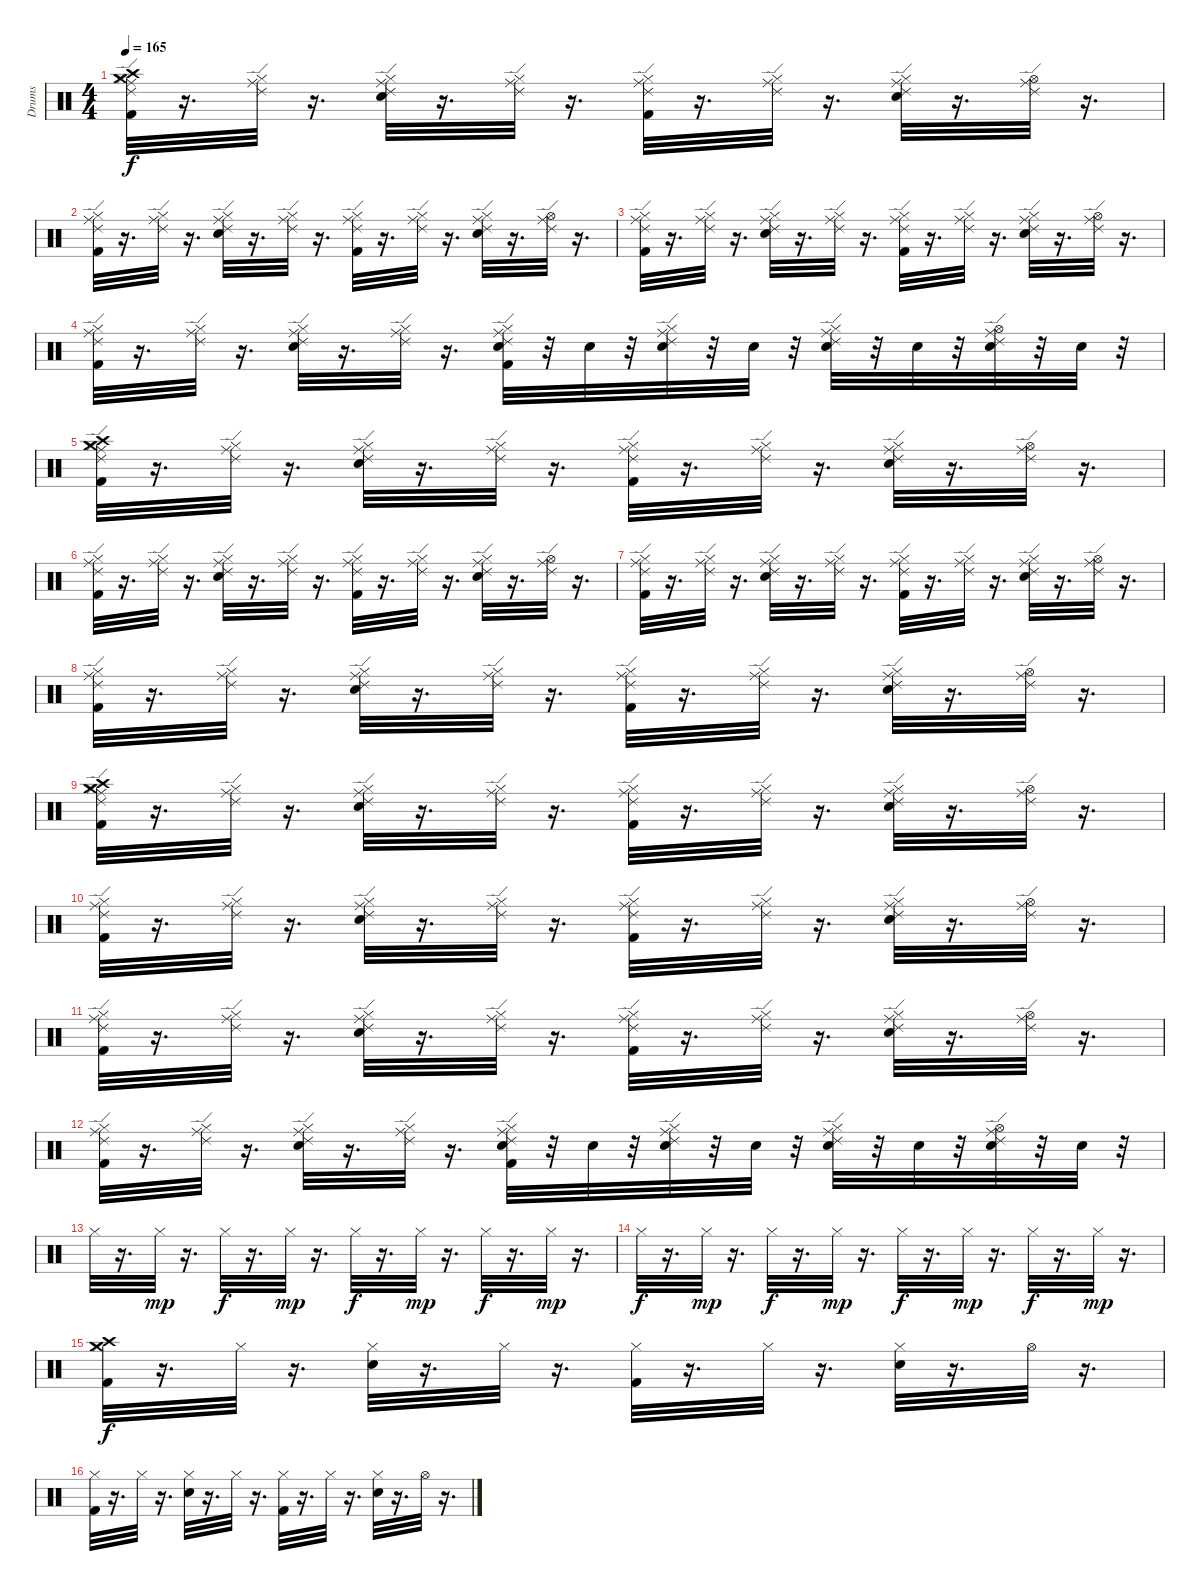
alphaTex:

\track ("Drums" "Drums") {instrument percussion}
\staff {score}
\articulation defaults
\ts (4 4)
\tempo 165
\clef neutral
\ks c
("Kick (hit) 2" "Hi-Hat (closed)" "Crash high (hit)" "Crash medium (hit)" "Ride (middle)" "Ride (edge) 2").32{dy f} r.16{d} ("Ride (middle)" "Hi-Hat (closed)" "Ride (edge) 2").32 r.16{d} ("Ride (middle)" "Electric Snare (hit)" "Hi-Hat (closed)" "Ride (edge) 2").32 r.16{d} ("Ride (edge) 2" "Ride (middle)" "Hi-Hat (closed)").32 r.16{d} ("Ride (edge) 2" "Kick (hit) 2" "Ride (middle)" "Hi-Hat (closed)").32 r.16{d} ("Ride (edge) 2" "Hi-Hat (closed)" "Ride (middle)").32 r.16{d} ("Hi-Hat (closed)" "Electric Snare (hit)" "Ride (edge) 2" "Ride (middle)").32 r.16{d} ("Ride (edge) 2" "Ride (middle)" "Hi-Hat (open)").32 r.16{d} |
("Ride (edge) 2" "Kick (hit) 2" "Hi-Hat (closed)" "Ride (middle)").32 r.16{d} ("Ride (edge) 2" "Hi-Hat (closed)" "Ride (middle)").32 r.16{d} ("Ride (middle)" "Ride (edge) 2" "Hi-Hat (closed)" "Electric Snare (hit)").32 r.16{d} ("Hi-Hat (closed)" "Ride (middle)" "Ride (edge) 2").32 r.16{d} ("Hi-Hat (closed)" "Kick (hit) 2" "Ride (edge) 2" "Ride (middle)").32 r.16{d} ("Ride (middle)" "Hi-Hat (closed)" "Ride (edge) 2").32 r.16{d} ("Electric Snare (hit)" "Ride (middle)" "Ride (edge) 2" "Hi-Hat (closed)").32 r.16{d} ("Ride (middle)" "Hi-Hat (open)" "Ride (edge) 2").32 r.16{d} |
("Hi-Hat (closed)" "Kick (hit) 2" "Ride (middle)" "Ride (edge) 2").32 r.16{d} ("Ride (middle)" "Ride (edge) 2" "Hi-Hat (closed)").32 r.16{d} ("Ride (edge) 2" "Electric Snare (hit)" "Ride (middle)" "Hi-Hat (closed)").32 r.16{d} ("Ride (edge) 2" "Ride (middle)" "Hi-Hat (closed)").32 r.16{d} ("Hi-Hat (closed)" "Kick (hit) 2" "Ride (edge) 2" "Ride (middle)").32 r.16{d} ("Ride (edge) 2" "Ride (middle)" "Hi-Hat (closed)").32 r.16{d} ("Ride (middle)" "Electric Snare (hit)" "Ride (edge) 2" "Hi-Hat (closed)").32 r.16{d} ("Ride (edge) 2" "Hi-Hat (open)" "Ride (middle)").32 r.16{d} |
("Hi-Hat (closed)" "Ride (edge) 2" "Ride (middle)" "Kick (hit) 2").32 r.16{d} ("Hi-Hat (closed)" "Ride (edge) 2" "Ride (middle)").32 r.16{d} ("Hi-Hat (closed)" "Ride (edge) 2" "Ride (middle)" "Electric Snare (hit)").32 r.16{d} ("Ride (edge) 2" "Hi-Hat (closed)" "Ride (middle)").32 r.16{d} ("Ride (edge) 2" "Kick (hit) 2" "Ride (middle)" "Hi-Hat (closed)" "Electric Snare (hit)").32 r.32 "Electric Snare (hit)".32 r.32 ("Hi-Hat (closed)" "Ride (middle)" "Ride (edge) 2" "Electric Snare (hit)").32 r.32 "Electric Snare (hit)".32 r.32 ("Ride (edge) 2" "Ride (middle)" "Hi-Hat (closed)" "Electric Snare (hit)").32 r.32 "Electric Snare (hit)".32 r.32 ("Hi-Hat (open)" "Electric Snare (hit)" "Ride (middle)" "Ride (edge) 2").32 r.32 "Electric Snare (hit)".32 r.32 |
("Ride (edge) 2" "Ride (middle)" "Kick (hit) 2" "Hi-Hat (closed)" "Crash high (hit)" "Crash medium (hit)").32 r.16{d} ("Ride (edge) 2" "Ride (middle)" "Hi-Hat (closed)").32 r.16{d} ("Ride (edge) 2" "Ride (middle)" "Hi-Hat (closed)" "Electric Snare (hit)").32 r.16{d} ("Ride (edge) 2" "Ride (middle)" "Hi-Hat (closed)").32 r.16{d} ("Ride (edge) 2" "Ride (middle)" "Kick (hit) 2" "Hi-Hat (closed)").32 r.16{d} ("Ride (edge) 2" "Ride (middle)" "Hi-Hat (closed)").32 r.16{d} ("Ride (edge) 2" "Ride (middle)" "Electric Snare (hit)" "Hi-Hat (closed)").32 r.16{d} ("Ride (edge) 2" "Ride (middle)" "Hi-Hat (open)").32 r.16{d} |
("Ride (edge) 2" "Ride (middle)" "Kick (hit) 2" "Hi-Hat (closed)").32 r.16{d} ("Ride (edge) 2" "Ride (middle)" "Hi-Hat (closed)").32 r.16{d} ("Ride (edge) 2" "Ride (middle)" "Hi-Hat (closed)" "Electric Snare (hit)").32 r.16{d} ("Ride (edge) 2" "Hi-Hat (closed)" "Ride (middle)").32 r.16{d} ("Ride (middle)" "Ride (edge) 2" "Kick (hit) 2" "Hi-Hat (closed)").32 r.16{d} ("Ride (middle)" "Ride (edge) 2" "Hi-Hat (closed)").32 r.16{d} ("Ride (middle)" "Ride (edge) 2" "Electric Snare (hit)" "Hi-Hat (closed)").32 r.16{d} ("Ride (middle)" "Ride (edge) 2" "Hi-Hat (open)").32 r.16{d} |
("Kick (hit) 2" "Hi-Hat (closed)" "Ride (edge) 2" "Ride (middle)").32 r.16{d} ("Hi-Hat (closed)" "Ride (edge) 2" "Ride (middle)").32 r.16{d} ("Ride (edge) 2" "Ride (middle)" "Hi-Hat (closed)" "Electric Snare (hit)").32 r.16{d} ("Ride (edge) 2" "Hi-Hat (closed)" "Ride (middle)").32 r.16{d} ("Kick (hit) 2" "Ride (edge) 2" "Ride (middle)" "Hi-Hat (closed)").32 r.16{d} ("Hi-Hat (closed)" "Ride (edge) 2" "Ride (middle)").32 r.16{d} ("Electric Snare (hit)" "Ride (edge) 2" "Ride (middle)" "Hi-Hat (closed)").32 r.16{d} ("Hi-Hat (open)" "Ride (middle)" "Ride (edge) 2").32 r.16{d} |
("Hi-Hat (closed)" "Kick (hit) 2" "Ride (edge) 2" "Ride (middle)").32 r.16{d} ("Ride (middle)" "Hi-Hat (closed)" "Ride (edge) 2").32 r.16{d} ("Electric Snare (hit)" "Hi-Hat (closed)" "Ride (edge) 2" "Ride (middle)").32 r.16{d} ("Ride (edge) 2" "Ride (middle)" "Hi-Hat (closed)").32 r.16{d} ("Ride (middle)" "Kick (hit) 2" "Hi-Hat (closed)" "Ride (edge) 2").32 r.16{d} ("Ride (middle)" "Ride (edge) 2" "Hi-Hat (closed)").32 r.16{d} ("Electric Snare (hit)" "Hi-Hat (closed)" "Ride (middle)" "Ride (edge) 2").32 r.16{d} ("Hi-Hat (open)" "Ride (middle)" "Ride (edge) 2").32 r.16{d} |
("Kick (hit) 2" "Hi-Hat (closed)" "Crash high (hit)" "Crash medium (hit)" "Ride (middle)" "Ride (edge) 2").32 r.16{d} ("Ride (middle)" "Hi-Hat (closed)" "Ride (edge) 2").32 r.16{d} ("Ride (middle)" "Electric Snare (hit)" "Hi-Hat (closed)" "Ride (edge) 2").32 r.16{d} ("Ride (edge) 2" "Ride (middle)" "Hi-Hat (closed)").32 r.16{d} ("Ride (edge) 2" "Kick (hit) 2" "Ride (middle)" "Hi-Hat (closed)").32 r.16{d} ("Ride (edge) 2" "Hi-Hat (closed)" "Ride (middle)").32 r.16{d} ("Hi-Hat (closed)" "Electric Snare (hit)" "Ride (edge) 2" "Ride (middle)").32 r.16{d} ("Ride (edge) 2" "Ride (middle)" "Hi-Hat (open)").32 r.16{d} |
("Ride (edge) 2" "Kick (hit) 2" "Hi-Hat (closed)" "Ride (middle)").32 r.16{d} ("Ride (edge) 2" "Hi-Hat (closed)" "Ride (middle)").32 r.16{d} ("Ride (middle)" "Ride (edge) 2" "Hi-Hat (closed)" "Electric Snare (hit)").32 r.16{d} ("Hi-Hat (closed)" "Ride (middle)" "Ride (edge) 2").32 r.16{d} ("Hi-Hat (closed)" "Kick (hit) 2" "Ride (edge) 2" "Ride (middle)").32 r.16{d} ("Ride (middle)" "Hi-Hat (closed)" "Ride (edge) 2").32 r.16{d} ("Electric Snare (hit)" "Ride (middle)" "Ride (edge) 2" "Hi-Hat (closed)").32 r.16{d} ("Ride (middle)" "Hi-Hat (open)" "Ride (edge) 2").32 r.16{d} |
("Hi-Hat (closed)" "Kick (hit) 2" "Ride (middle)" "Ride (edge) 2").32 r.16{d} ("Ride (middle)" "Ride (edge) 2" "Hi-Hat (closed)").32 r.16{d} ("Ride (edge) 2" "Electric Snare (hit)" "Ride (middle)" "Hi-Hat (closed)").32 r.16{d} ("Ride (edge) 2" "Ride (middle)" "Hi-Hat (closed)").32 r.16{d} ("Hi-Hat (closed)" "Kick (hit) 2" "Ride (edge) 2" "Ride (middle)").32 r.16{d} ("Ride (edge) 2" "Ride (middle)" "Hi-Hat (closed)").32 r.16{d} ("Ride (middle)" "Electric Snare (hit)" "Ride (edge) 2" "Hi-Hat (closed)").32 r.16{d} ("Ride (edge) 2" "Hi-Hat (open)" "Ride (middle)").32 r.16{d} |
("Hi-Hat (closed)" "Ride (edge) 2" "Ride (middle)" "Kick (hit) 2").32 r.16{d} ("Hi-Hat (closed)" "Ride (edge) 2" "Ride (middle)").32 r.16{d} ("Hi-Hat (closed)" "Ride (edge) 2" "Ride (middle)" "Electric Snare (hit)").32 r.16{d} ("Ride (edge) 2" "Hi-Hat (closed)" "Ride (middle)").32 r.16{d} ("Ride (edge) 2" "Kick (hit) 2" "Ride (middle)" "Hi-Hat (closed)" "Electric Snare (hit)").32 r.32 "Electric Snare (hit)".32 r.32 ("Hi-Hat (closed)" "Ride (middle)" "Ride (edge) 2" "Electric Snare (hit)").32 r.32 "Electric Snare (hit)".32 r.32 ("Ride (edge) 2" "Ride (middle)" "Hi-Hat (closed)" "Electric Snare (hit)").32 r.32 "Electric Snare (hit)".32 r.32 ("Hi-Hat (open)" "Electric Snare (hit)" "Ride (middle)" "Ride (edge) 2").32 r.32 "Electric Snare (hit)".32 r.32 |
"Hi-Hat (closed)".32 r.16{d} "Hi-Hat (closed)".32{dy mp} r.16{d} "Hi-Hat (closed)".32{dy f} r.16{d} "Hi-Hat (closed)".32{dy mp} r.16{d} "Hi-Hat (closed)".32{dy f} r.16{d} "Hi-Hat (closed)".32{dy mp} r.16{d} "Hi-Hat (closed)".32{dy f} r.16{d} "Hi-Hat (closed)".32{dy mp} r.16{d} |
"Hi-Hat (closed)".32{dy f} r.16{d} "Hi-Hat (closed)".32{dy mp} r.16{d} "Hi-Hat (closed)".32{dy f} r.16{d} "Hi-Hat (closed)".32{dy mp} r.16{d} "Hi-Hat (closed)".32{dy f} r.16{d} "Hi-Hat (closed)".32{dy mp} r.16{d} "Hi-Hat (closed)".32{dy f} r.16{d} "Hi-Hat (closed)".32{dy mp} r.16{d} |
("Kick (hit) 2" "Hi-Hat (closed)" "Crash high (hit)" "Crash medium (hit)").32{dy f} r.16{d} "Hi-Hat (closed)".32 r.16{d} ("Hi-Hat (closed)" "Electric Snare (hit)").32 r.16{d} "Hi-Hat (closed)".32 r.16{d} ("Kick (hit) 2" "Hi-Hat (closed)").32 r.16{d} "Hi-Hat (closed)".32 r.16{d} ("Electric Snare (hit)" "Hi-Hat (closed)").32 r.16{d} "Hi-Hat (open)".32 r.16{d} |
("Kick (hit) 2" "Hi-Hat (closed)").32 r.16{d} "Hi-Hat (closed)".32 r.16{d} ("Hi-Hat (closed)" "Electric Snare (hit)").32 r.16{d} "Hi-Hat (closed)".32 r.16{d} ("Kick (hit) 2" "Hi-Hat (closed)").32 r.16{d} "Hi-Hat (closed)".32 r.16{d} ("Electric Snare (hit)" "Hi-Hat (closed)").32 r.16{d} "Hi-Hat (open)".32 r.16{d}
